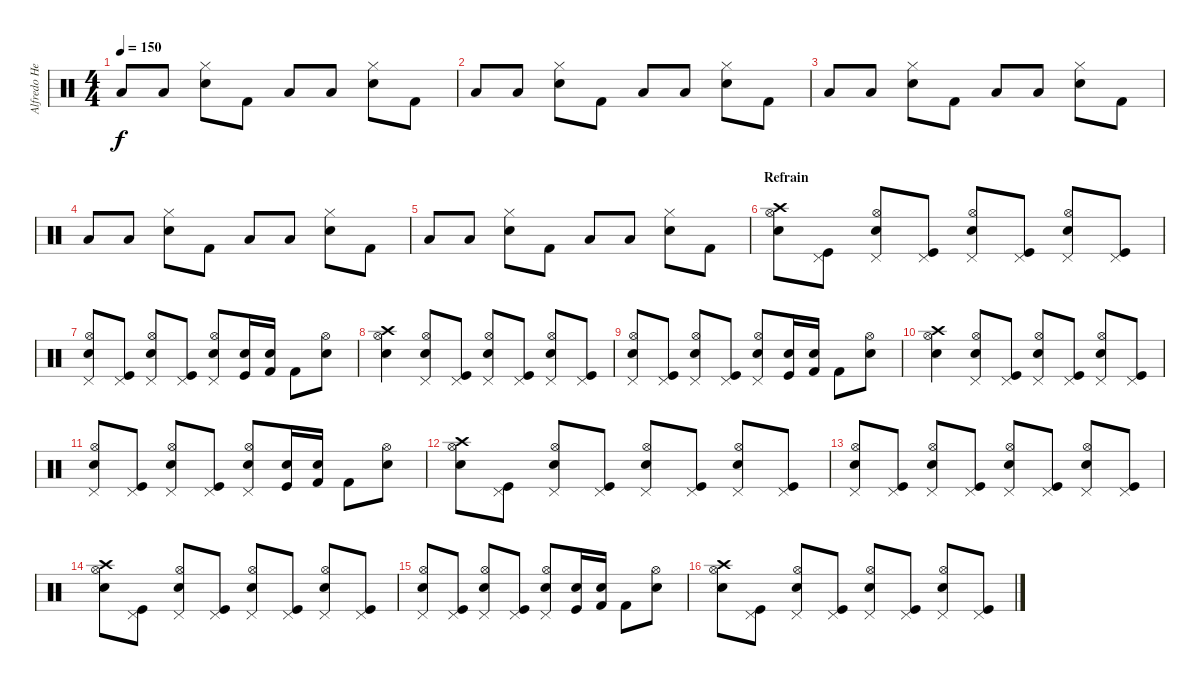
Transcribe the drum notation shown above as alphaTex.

\track ("Alfredo Hernandez" "Alfredo He") {instrument percussion}
\staff {score}
\articulation defaults
\ts (4 4)
\tempo 150
\clef neutral
\ks c "Low Tom (hit)".8{dy f} "Low Tom (hit)".8
("Snare (hit) 2" "Hi-Hat (closed)").8 "Kick (hit) 2".8 "Low Tom (hit)".8 "Low Tom (hit)".8 ("Snare (hit) 2" "Hi-Hat (closed)").8 "Kick (hit) 2".8 |
"Low Tom (hit)".8 "Low Tom (hit)".8 ("Snare (hit) 2" "Hi-Hat (closed)").8 "Kick (hit) 2".8 "Low Tom (hit)".8 "Low Tom (hit)".8 ("Snare (hit) 2" "Hi-Hat (closed)").8 "Kick (hit) 2".8 |
"Low Tom (hit)".8 "Low Tom (hit)".8 ("Snare (hit) 2" "Hi-Hat (closed)").8 "Kick (hit) 2".8 "Low Tom (hit)".8 "Low Tom (hit)".8 ("Snare (hit) 2" "Hi-Hat (closed)").8 "Kick (hit) 2".8 |
"Low Tom (hit)".8 "Low Tom (hit)".8 ("Snare (hit) 2" "Hi-Hat (closed)").8 "Kick (hit) 2".8 "Low Tom (hit)".8 "Low Tom (hit)".8 ("Snare (hit) 2" "Hi-Hat (closed)").8 "Kick (hit) 2".8 |
"Low Tom (hit)".8 "Low Tom (hit)".8 ("Snare (hit) 2" "Hi-Hat (closed)").8 "Kick (hit) 2".8 "Low Tom (hit)".8 "Low Tom (hit)".8 ("Snare (hit) 2" "Hi-Hat (closed)").8 "Kick (hit) 2".8 |
\section ("" "Refrain")
("Electric Snare (hit)" "Crash high (hit)" "Hi-Hat (open)").8 ("Kick (hit)" "Pedal Hi-Hat (hit)").8 ("Electric Snare (hit)" "Pedal Hi-Hat (hit)" "Hi-Hat (open)").8 ("Kick (hit)" "Pedal Hi-Hat (hit)").8 ("Electric Snare (hit)" "Pedal Hi-Hat (hit)" "Hi-Hat (open)").8 ("Kick (hit)" "Pedal Hi-Hat (hit)").8 ("Electric Snare (hit)" "Pedal Hi-Hat (hit)" "Hi-Hat (open)").8 ("Kick (hit)" "Pedal Hi-Hat (hit)").8 |
("Electric Snare (hit)" "Pedal Hi-Hat (hit)" "Hi-Hat (open)").8 ("Kick (hit)" "Pedal Hi-Hat (hit)").8 ("Electric Snare (hit)" "Pedal Hi-Hat (hit)" "Hi-Hat (open)").8 ("Kick (hit)" "Pedal Hi-Hat (hit)").8 ("Electric Snare (hit)" "Pedal Hi-Hat (hit)" "Hi-Hat (open)").8 ("Kick (hit)" "Electric Snare (hit)").16 ("Kick (hit) 2" "Electric Snare (hit)").16 "Kick (hit) 2".8 ("Electric Snare (hit)" "Hi-Hat (open)").8 |
("Electric Snare (hit)" "Crash high (hit)" "Hi-Hat (open)").4 ("Electric Snare (hit)" "Pedal Hi-Hat (hit)" "Hi-Hat (open)").8 ("Kick (hit)" "Pedal Hi-Hat (hit)").8 ("Electric Snare (hit)" "Pedal Hi-Hat (hit)" "Hi-Hat (open)").8 ("Kick (hit)" "Pedal Hi-Hat (hit)").8 ("Electric Snare (hit)" "Pedal Hi-Hat (hit)" "Hi-Hat (open)").8 ("Kick (hit)" "Pedal Hi-Hat (hit)").8 |
("Electric Snare (hit)" "Pedal Hi-Hat (hit)" "Hi-Hat (open)").8 ("Kick (hit)" "Pedal Hi-Hat (hit)").8 ("Electric Snare (hit)" "Pedal Hi-Hat (hit)" "Hi-Hat (open)").8 ("Kick (hit)" "Pedal Hi-Hat (hit)").8 ("Electric Snare (hit)" "Pedal Hi-Hat (hit)" "Hi-Hat (open)").8 ("Kick (hit)" "Electric Snare (hit)").16 ("Kick (hit) 2" "Electric Snare (hit)").16 "Kick (hit) 2".8 ("Electric Snare (hit)" "Hi-Hat (open)").8 |
("Electric Snare (hit)" "Crash high (hit)" "Hi-Hat (open)").4 ("Electric Snare (hit)" "Pedal Hi-Hat (hit)" "Hi-Hat (open)").8 ("Kick (hit)" "Pedal Hi-Hat (hit)").8 ("Electric Snare (hit)" "Pedal Hi-Hat (hit)" "Hi-Hat (open)").8 ("Kick (hit)" "Pedal Hi-Hat (hit)").8 ("Electric Snare (hit)" "Pedal Hi-Hat (hit)" "Hi-Hat (open)").8 ("Kick (hit)" "Pedal Hi-Hat (hit)").8 |
("Electric Snare (hit)" "Pedal Hi-Hat (hit)" "Hi-Hat (open)").8 ("Kick (hit)" "Pedal Hi-Hat (hit)").8 ("Electric Snare (hit)" "Pedal Hi-Hat (hit)" "Hi-Hat (open)").8 ("Kick (hit)" "Pedal Hi-Hat (hit)").8 ("Electric Snare (hit)" "Pedal Hi-Hat (hit)" "Hi-Hat (open)").8 ("Kick (hit)" "Electric Snare (hit)").16 ("Kick (hit) 2" "Electric Snare (hit)").16 "Kick (hit) 2".8 ("Electric Snare (hit)" "Hi-Hat (open)").8 |
("Electric Snare (hit)" "Crash high (hit)" "Hi-Hat (open)").8 ("Kick (hit)" "Pedal Hi-Hat (hit)").8 ("Electric Snare (hit)" "Pedal Hi-Hat (hit)" "Hi-Hat (open)").8 ("Kick (hit)" "Pedal Hi-Hat (hit)").8 ("Electric Snare (hit)" "Pedal Hi-Hat (hit)" "Hi-Hat (open)").8 ("Kick (hit)" "Pedal Hi-Hat (hit)").8 ("Electric Snare (hit)" "Pedal Hi-Hat (hit)" "Hi-Hat (open)").8 ("Kick (hit)" "Pedal Hi-Hat (hit)").8 |
("Electric Snare (hit)" "Pedal Hi-Hat (hit)" "Hi-Hat (open)").8 ("Kick (hit)" "Pedal Hi-Hat (hit)").8 ("Electric Snare (hit)" "Pedal Hi-Hat (hit)" "Hi-Hat (open)").8 ("Kick (hit)" "Pedal Hi-Hat (hit)").8 ("Electric Snare (hit)" "Pedal Hi-Hat (hit)" "Hi-Hat (open)").8 ("Kick (hit)" "Pedal Hi-Hat (hit)").8 ("Electric Snare (hit)" "Pedal Hi-Hat (hit)" "Hi-Hat (open)").8 ("Kick (hit)" "Pedal Hi-Hat (hit)").8 |
("Electric Snare (hit)" "Crash high (hit)" "Hi-Hat (open)").8 ("Kick (hit)" "Pedal Hi-Hat (hit)").8 ("Electric Snare (hit)" "Pedal Hi-Hat (hit)" "Hi-Hat (open)").8 ("Kick (hit)" "Pedal Hi-Hat (hit)").8 ("Electric Snare (hit)" "Pedal Hi-Hat (hit)" "Hi-Hat (open)").8 ("Kick (hit)" "Pedal Hi-Hat (hit)").8 ("Electric Snare (hit)" "Pedal Hi-Hat (hit)" "Hi-Hat (open)").8 ("Kick (hit)" "Pedal Hi-Hat (hit)").8 |
("Electric Snare (hit)" "Pedal Hi-Hat (hit)" "Hi-Hat (open)").8 ("Kick (hit)" "Pedal Hi-Hat (hit)").8 ("Electric Snare (hit)" "Pedal Hi-Hat (hit)" "Hi-Hat (open)").8 ("Kick (hit)" "Pedal Hi-Hat (hit)").8 ("Electric Snare (hit)" "Pedal Hi-Hat (hit)" "Hi-Hat (open)").8 ("Kick (hit)" "Electric Snare (hit)").16 ("Kick (hit) 2" "Electric Snare (hit)").16 "Kick (hit) 2".8 ("Electric Snare (hit)" "Hi-Hat (open)").8 |
("Electric Snare (hit)" "Crash high (hit)" "Hi-Hat (open)").8 ("Kick (hit)" "Pedal Hi-Hat (hit)").8 ("Electric Snare (hit)" "Pedal Hi-Hat (hit)" "Hi-Hat (open)").8 ("Kick (hit)" "Pedal Hi-Hat (hit)").8 ("Electric Snare (hit)" "Pedal Hi-Hat (hit)" "Hi-Hat (open)").8 ("Kick (hit)" "Pedal Hi-Hat (hit)").8 ("Electric Snare (hit)" "Pedal Hi-Hat (hit)" "Hi-Hat (open)").8 ("Kick (hit)" "Pedal Hi-Hat (hit)").8
